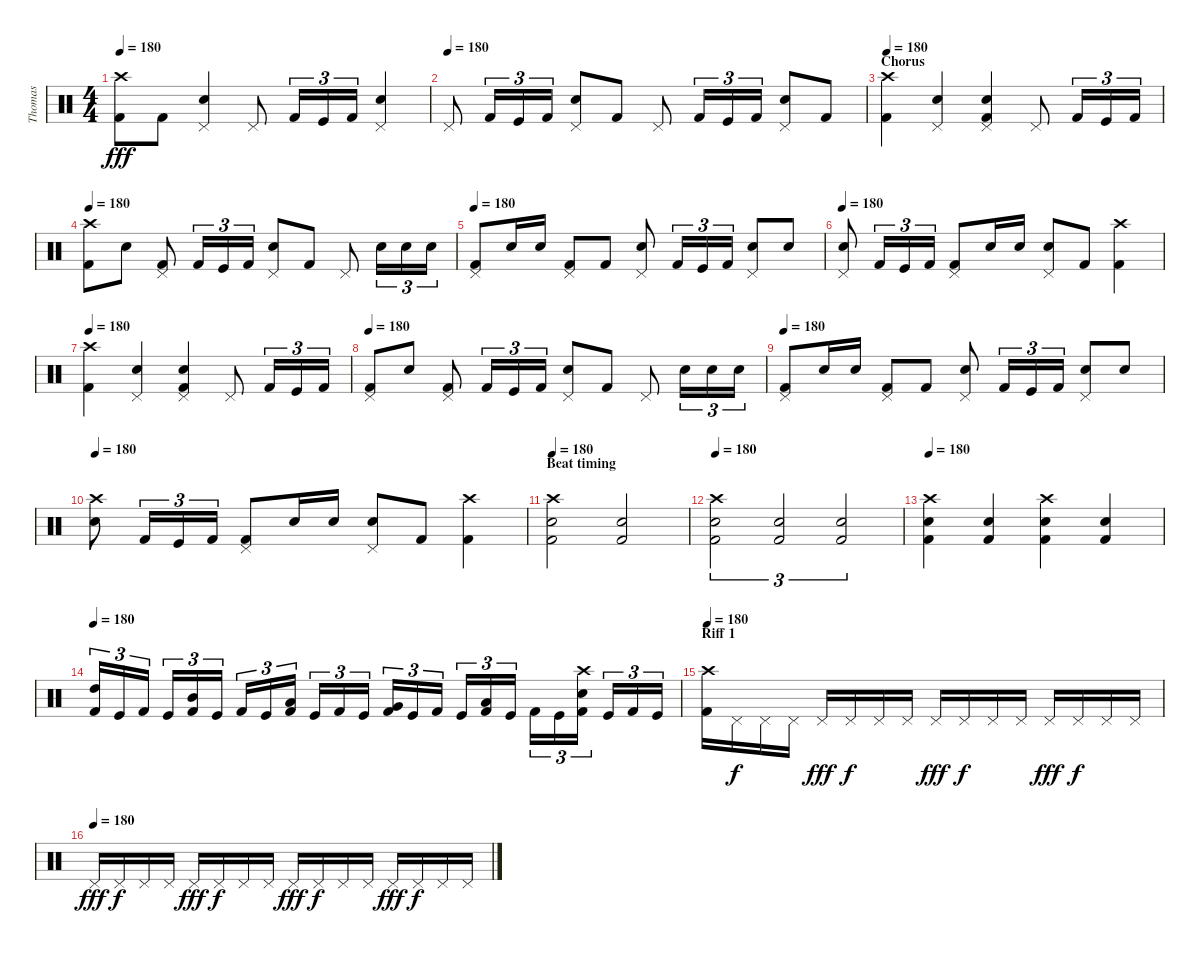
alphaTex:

\track ("Thomas" "Thomas") {instrument percussion}
\staff {score}
\articulation defaults
\ts (4 4)
\tempo 180
\clef neutral
\ks c
("Crash high (hit)" "Kick (hit) 2").8{dy fff} "Kick (hit) 2".8 ("Pedal Hi-Hat (hit)" "Snare (hit) 2").4 "Pedal Hi-Hat (hit)".8 "Kick (hit) 2".16{tu (3 2)} "Kick (hit)".16{tu (3 2)} "Kick (hit) 2".16{tu (3 2)} ("Pedal Hi-Hat (hit)" "Snare (hit) 2").4 |
\tempo (180)
"Pedal Hi-Hat (hit)".8 "Kick (hit) 2".16{tu (3 2)} "Kick (hit)".16{tu (3 2)} "Kick (hit) 2".16{tu (3 2)} ("Pedal Hi-Hat (hit)" "Snare (hit) 2").8 "Kick (hit) 2".8 "Pedal Hi-Hat (hit)".8 "Kick (hit) 2".16{tu (3 2)} "Kick (hit)".16{tu (3 2)} "Kick (hit) 2".16{tu (3 2)} ("Pedal Hi-Hat (hit)" "Snare (hit) 2").8 "Kick (hit) 2".8 |
\section ("" "Chorus")
\tempo 180
("Crash high (hit)" "Kick (hit) 2").4 ("Pedal Hi-Hat (hit)" "Snare (hit) 2").4 ("Pedal Hi-Hat (hit)" "Snare (hit) 2" "Kick (hit) 2").4 "Pedal Hi-Hat (hit)".8 "Kick (hit) 2".16{tu (3 2)} "Kick (hit)".16{tu (3 2)} "Kick (hit) 2".16{tu (3 2)} |
\tempo 180
("Crash high (hit)" "Kick (hit) 2").8 "Snare (hit) 2".8 ("Pedal Hi-Hat (hit)" "Kick (hit) 2").8 "Kick (hit) 2".16{tu (3 2)} "Kick (hit)".16{tu (3 2)} "Kick (hit) 2".16{tu (3 2)} ("Pedal Hi-Hat (hit)" "Snare (hit) 2").8 "Kick (hit) 2".8 "Pedal Hi-Hat (hit)".8 "Snare (hit) 2".16{tu (3 2)} "Snare (hit) 2".16{tu (3 2)} "Snare (hit) 2".16{tu (3 2)} |
\tempo 180
("Pedal Hi-Hat (hit)" "Kick (hit) 2").8 "Snare (hit) 2".16 "Snare (hit) 2".16 ("Pedal Hi-Hat (hit)" "Kick (hit) 2").8 "Kick (hit) 2".8 ("Pedal Hi-Hat (hit)" "Snare (hit) 2").8 "Kick (hit) 2".16{tu (3 2)} "Kick (hit)".16{tu (3 2)} "Kick (hit) 2".16{tu (3 2)} ("Pedal Hi-Hat (hit)" "Snare (hit) 2").8 "Snare (hit) 2".8 |
\tempo 180
("Pedal Hi-Hat (hit)" "Snare (hit) 2").8 "Kick (hit) 2".16{tu (3 2)} "Kick (hit)".16{tu (3 2)} "Kick (hit) 2".16{tu (3 2)} ("Pedal Hi-Hat (hit)" "Kick (hit) 2").8 "Snare (hit) 2".16 "Snare (hit) 2".16 ("Pedal Hi-Hat (hit)" "Snare (hit) 2").8 "Kick (hit) 2".8 ("Crash high (hit)" "Kick (hit) 2").4 |
\tempo 180
("Crash high (hit)" "Kick (hit) 2").4 ("Pedal Hi-Hat (hit)" "Snare (hit) 2").4 ("Pedal Hi-Hat (hit)" "Snare (hit) 2" "Kick (hit) 2").4 "Pedal Hi-Hat (hit)".8 "Kick (hit) 2".16{tu (3 2)} "Kick (hit)".16{tu (3 2)} "Kick (hit) 2".16{tu (3 2)} |
\tempo 180
("Pedal Hi-Hat (hit)" "Kick (hit) 2").8 "Snare (hit) 2".8 ("Pedal Hi-Hat (hit)" "Kick (hit) 2").8 "Kick (hit) 2".16{tu (3 2)} "Kick (hit)".16{tu (3 2)} "Kick (hit) 2".16{tu (3 2)} ("Pedal Hi-Hat (hit)" "Snare (hit) 2").8 "Kick (hit) 2".8 "Pedal Hi-Hat (hit)".8 "Snare (hit) 2".16{tu (3 2)} "Snare (hit) 2".16{tu (3 2)} "Snare (hit) 2".16{tu (3 2)} |
\tempo 180
("Pedal Hi-Hat (hit)" "Kick (hit) 2").8 "Snare (hit) 2".16 "Snare (hit) 2".16 ("Pedal Hi-Hat (hit)" "Kick (hit) 2").8 "Kick (hit) 2".8 ("Pedal Hi-Hat (hit)" "Snare (hit) 2").8 "Kick (hit) 2".16{tu (3 2)} "Kick (hit)".16{tu (3 2)} "Kick (hit) 2".16{tu (3 2)} ("Pedal Hi-Hat (hit)" "Snare (hit) 2").8 "Snare (hit) 2".8 |
\tempo 180
("Crash high (hit)" "Snare (hit) 2").8 "Kick (hit) 2".16{tu (3 2)} "Kick (hit)".16{tu (3 2)} "Kick (hit) 2".16{tu (3 2)} ("Pedal Hi-Hat (hit)" "Kick (hit) 2").8 "Snare (hit) 2".16 "Snare (hit) 2".16 ("Pedal Hi-Hat (hit)" "Snare (hit) 2").8 "Kick (hit) 2".8 ("Crash high (hit)" "Kick (hit) 2").4 |
\section ("" "Beat timing")
\tempo 180
("Crash high (hit)" "Snare (hit) 2" "Kick (hit) 2").2 ("Snare (hit) 2" "Kick (hit) 2").2 |
\tempo 180
("Crash high (hit)" "Snare (hit) 2" "Kick (hit) 2").2{tu (3 2)} ("Snare (hit) 2" "Kick (hit) 2").2{tu (3 2)} ("Snare (hit) 2" "Kick (hit) 2").2{tu (3 2)} |
\tempo 180
("Crash high (hit)" "Snare (hit) 2" "Kick (hit) 2").4 ("Snare (hit) 2" "Kick (hit) 2").4 ("Crash high (hit)" "Snare (hit) 2" "Kick (hit) 2").4 ("Snare (hit) 2" "Kick (hit) 2").4 |
\tempo 180
("High Tom (hit)" "Kick (hit) 2").16{tu (3 2)} "Kick (hit)".16{tu (3 2)} "Kick (hit) 2".16{tu (3 2)} "Kick (hit)".16{tu (3 2)} ("Mid Tom (hit)" "Kick (hit) 2").16{tu (3 2)} "Kick (hit)".16{tu (3 2)} "Kick (hit) 2".16{tu (3 2)} "Kick (hit)".16{tu (3 2)} ("Low Tom (hit)" "Kick (hit) 2").16{tu (3 2)} "Kick (hit)".16{tu (3 2)} "Kick (hit) 2".16{tu (3 2)} "Kick (hit)".16{tu (3 2)} ("Very Low Tom (hit)" "Kick (hit) 2").16{tu (3 2)} "Kick (hit)".16{tu (3 2)} "Kick (hit) 2".16{tu (3 2)} "Kick (hit)".16{tu (3 2)} ("Low Floor Tom (hit)" "Kick (hit) 2").16{tu (3 2)} "Kick (hit)".16{tu (3 2)} "Kick (hit) 2".16{tu (3 2)} "Kick (hit)".16{tu (3 2)} ("Crash high (hit)" "Snare (hit) 2" "Kick (hit) 2").16{tu (3 2)} "Kick (hit)".16{tu (3 2)} "Kick (hit) 2".16{tu (3 2)} "Kick (hit)".16{tu (3 2)} |
\section ("" "Riff 1")
\tempo 180
("Crash high (hit)" "Kick (hit) 2").16 "Pedal Hi-Hat (hit)".16{dy f} "Pedal Hi-Hat (hit)".16 "Pedal Hi-Hat (hit)".16 "Pedal Hi-Hat (hit)".16{dy fff} "Pedal Hi-Hat (hit)".16{dy f} "Pedal Hi-Hat (hit)".16 "Pedal Hi-Hat (hit)".16 "Pedal Hi-Hat (hit)".16{dy fff} "Pedal Hi-Hat (hit)".16{dy f} "Pedal Hi-Hat (hit)".16 "Pedal Hi-Hat (hit)".16 "Pedal Hi-Hat (hit)".16{dy fff} "Pedal Hi-Hat (hit)".16{dy f} "Pedal Hi-Hat (hit)".16 "Pedal Hi-Hat (hit)".16 |
\tempo (180)
"Pedal Hi-Hat (hit)".16{dy fff} "Pedal Hi-Hat (hit)".16{dy f} "Pedal Hi-Hat (hit)".16 "Pedal Hi-Hat (hit)".16 "Pedal Hi-Hat (hit)".16{dy fff} "Pedal Hi-Hat (hit)".16{dy f} "Pedal Hi-Hat (hit)".16 "Pedal Hi-Hat (hit)".16 "Pedal Hi-Hat (hit)".16{dy fff} "Pedal Hi-Hat (hit)".16{dy f} "Pedal Hi-Hat (hit)".16 "Pedal Hi-Hat (hit)".16 "Pedal Hi-Hat (hit)".16{dy fff} "Pedal Hi-Hat (hit)".16{dy f} "Pedal Hi-Hat (hit)".16 "Pedal Hi-Hat (hit)".16
